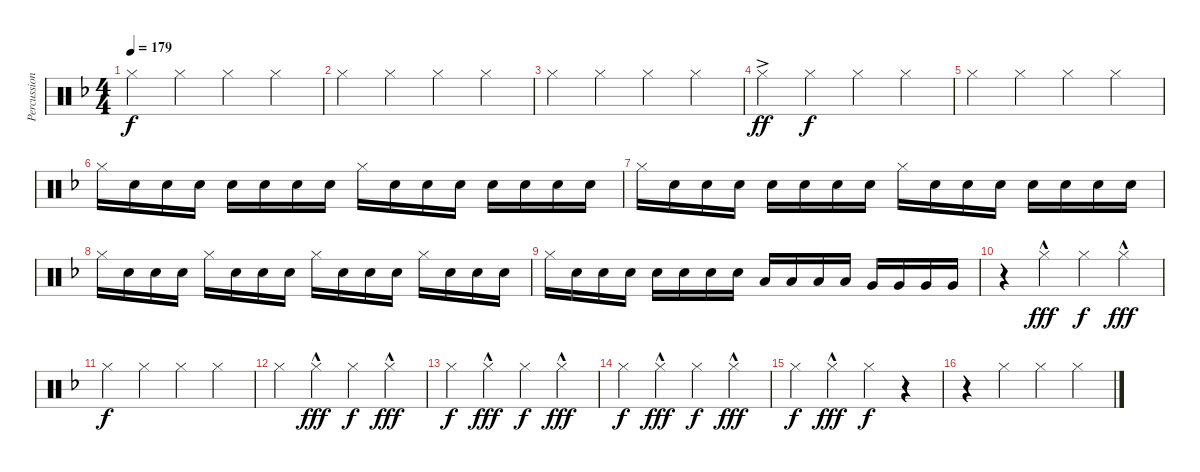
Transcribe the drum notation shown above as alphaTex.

\track ("Percussion 01" "Percussion") {instrument percussion}
\staff {score}
\articulation defaults
\ts (4 4)
\tempo 179
\clef neutral
\ks dminor "Hi-Hat (closed)".4{dy f} "Hi-Hat (closed)".4 "Hi-Hat (closed)".4 "Hi-Hat (closed)".4
|
"Hi-Hat (closed)".4 "Hi-Hat (closed)".4 "Hi-Hat (closed)".4 "Hi-Hat (closed)".4 |
"Hi-Hat (closed)".4 "Hi-Hat (closed)".4 "Hi-Hat (closed)".4 "Hi-Hat (closed)".4 |
"Hi-Hat (closed)"{ac}.4{dy ff} "Hi-Hat (closed)".4{dy f} "Hi-Hat (closed)".4 "Hi-Hat (closed)".4 |
"Hi-Hat (closed)".4 "Hi-Hat (closed)".4 "Hi-Hat (closed)".4 "Hi-Hat (closed)".4 |
"Hi-Hat (closed)".16 "Snare (hit) 2".16 "Snare (hit) 2".16 "Snare (hit) 2".16 "Snare (hit) 2".16 "Snare (hit) 2".16 "Snare (hit) 2".16 "Snare (hit) 2".16 "Hi-Hat (closed)".16 "Snare (hit) 2".16 "Snare (hit) 2".16 "Snare (hit) 2".16 "Snare (hit) 2".16 "Snare (hit) 2".16 "Snare (hit) 2".16 "Snare (hit) 2".16 |
"Hi-Hat (closed)".16 "Snare (hit) 2".16 "Snare (hit) 2".16 "Snare (hit) 2".16 "Snare (hit) 2".16 "Snare (hit) 2".16 "Snare (hit) 2".16 "Snare (hit) 2".16 "Hi-Hat (closed)".16 "Snare (hit) 2".16 "Snare (hit) 2".16 "Snare (hit) 2".16 "Snare (hit) 2".16 "Snare (hit) 2".16 "Snare (hit) 2".16 "Snare (hit) 2".16 |
"Hi-Hat (closed)".16 "Snare (hit) 2".16 "Snare (hit) 2".16 "Snare (hit) 2".16 "Hi-Hat (closed)".16 "Snare (hit) 2".16 "Snare (hit) 2".16 "Snare (hit) 2".16 "Hi-Hat (closed)".16 "Snare (hit) 2".16 "Snare (hit) 2".16 "Snare (hit) 2".16 "Hi-Hat (closed)".16 "Snare (hit) 2".16 "Snare (hit) 2".16 "Snare (hit) 2".16 |
"Hi-Hat (closed)".16 "Snare (hit) 2".16 "Snare (hit) 2".16 "Snare (hit) 2".16 "Snare (hit) 2".16 "Snare (hit) 2".16 "Snare (hit) 2".16 "Snare (hit) 2".16 "Low Tom (hit)".16 "Low Tom (hit)".16 "Low Tom (hit)".16 "Low Tom (hit)".16 "Very Low Tom (hit)".16 "Very Low Tom (hit)".16 "Very Low Tom (hit)".16 "Very Low Tom (hit)".16 |
r.4 "Hi-Hat (closed)"{hac}.4{dy fff} "Hi-Hat (closed)".4{dy f} "Hi-Hat (closed)"{hac}.4{dy fff} |
"Hi-Hat (closed)".4{dy f} "Hi-Hat (closed)".4 "Hi-Hat (closed)".4 "Hi-Hat (closed)".4 |
"Hi-Hat (closed)".4 "Hi-Hat (closed)"{hac}.4{dy fff} "Hi-Hat (closed)".4{dy f} "Hi-Hat (closed)"{hac}.4{dy fff} |
"Hi-Hat (closed)".4{dy f} "Hi-Hat (closed)"{hac}.4{dy fff} "Hi-Hat (closed)".4{dy f} "Hi-Hat (closed)"{hac}.4{dy fff} |
"Hi-Hat (closed)".4{dy f} "Hi-Hat (closed)"{hac}.4{dy fff} "Hi-Hat (closed)".4{dy f} "Hi-Hat (closed)"{hac}.4{dy fff} |
"Hi-Hat (closed)".4{dy f} "Hi-Hat (closed)"{hac}.4{dy fff} "Hi-Hat (closed)".4{dy f} r.4 |
r.4 "Hi-Hat (closed)".4 "Hi-Hat (closed)".4 "Hi-Hat (closed)".4
